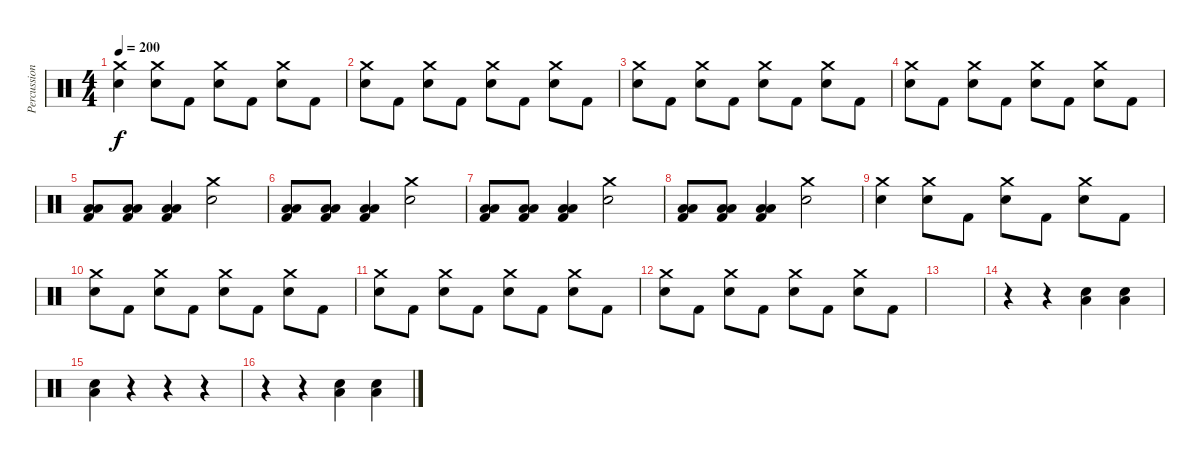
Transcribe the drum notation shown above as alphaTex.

\track ("Percussion" "Percussion") {instrument percussion}
\staff {score}
\articulation defaults
\ts (4 4)
\tempo 200
\clef neutral
\ks c
("Crash medium (hit)" "Snare (hit) 2").4{dy f} ("Crash medium (hit)" "Snare (hit) 2").8 "Kick (hit) 2".8 ("Crash medium (hit)" "Snare (hit) 2").8 "Kick (hit) 2".8 ("Crash medium (hit)" "Snare (hit) 2").8 "Kick (hit) 2".8 |
("Crash medium (hit)" "Snare (hit) 2").8 "Kick (hit) 2".8 ("Crash medium (hit)" "Snare (hit) 2").8 "Kick (hit) 2".8 ("Crash medium (hit)" "Snare (hit) 2").8 "Kick (hit) 2".8 ("Crash medium (hit)" "Snare (hit) 2").8 "Kick (hit) 2".8 |
("Crash medium (hit)" "Snare (hit) 2").8 "Kick (hit) 2".8 ("Crash medium (hit)" "Snare (hit) 2").8 "Kick (hit) 2".8 ("Crash medium (hit)" "Snare (hit) 2").8 "Kick (hit) 2".8 ("Crash medium (hit)" "Snare (hit) 2").8 "Kick (hit) 2".8 |
("Crash medium (hit)" "Snare (hit) 2").8 "Kick (hit) 2".8 ("Crash medium (hit)" "Snare (hit) 2").8 "Kick (hit) 2".8 ("Crash medium (hit)" "Snare (hit) 2").8 "Kick (hit) 2".8 ("Crash medium (hit)" "Snare (hit) 2").8 "Kick (hit) 2".8 |
("Low Floor Tom (hit)" "Low Tom (hit)" "Kick (hit) 2").8 ("Low Floor Tom (hit)" "Low Tom (hit)" "Kick (hit) 2").8 ("Low Floor Tom (hit)" "Low Tom (hit)" "Kick (hit) 2").4 ("Crash medium (hit)" "Snare (hit) 2").2 |
("Low Floor Tom (hit)" "Low Tom (hit)" "Kick (hit) 2").8 ("Low Floor Tom (hit)" "Low Tom (hit)" "Kick (hit) 2").8 ("Low Floor Tom (hit)" "Low Tom (hit)" "Kick (hit) 2").4 ("Crash medium (hit)" "Snare (hit) 2").2 |
("Low Floor Tom (hit)" "Low Tom (hit)" "Kick (hit) 2").8 ("Low Floor Tom (hit)" "Low Tom (hit)" "Kick (hit) 2").8 ("Low Floor Tom (hit)" "Low Tom (hit)" "Kick (hit) 2").4 ("Crash medium (hit)" "Snare (hit) 2").2 |
("Low Floor Tom (hit)" "Low Tom (hit)" "Kick (hit) 2").8 ("Low Floor Tom (hit)" "Low Tom (hit)" "Kick (hit) 2").8 ("Low Floor Tom (hit)" "Low Tom (hit)" "Kick (hit) 2").4 ("Crash medium (hit)" "Snare (hit) 2").2 |
("Crash medium (hit)" "Snare (hit) 2").4 ("Crash medium (hit)" "Snare (hit) 2").8 "Kick (hit) 2".8 ("Crash medium (hit)" "Snare (hit) 2").8 "Kick (hit) 2".8 ("Crash medium (hit)" "Snare (hit) 2").8 "Kick (hit) 2".8 |
("Crash medium (hit)" "Snare (hit) 2").8 "Kick (hit) 2".8 ("Crash medium (hit)" "Snare (hit) 2").8 "Kick (hit) 2".8 ("Crash medium (hit)" "Snare (hit) 2").8 "Kick (hit) 2".8 ("Crash medium (hit)" "Snare (hit) 2").8 "Kick (hit) 2".8 |
("Crash medium (hit)" "Snare (hit) 2").8 "Kick (hit) 2".8 ("Crash medium (hit)" "Snare (hit) 2").8 "Kick (hit) 2".8 ("Crash medium (hit)" "Snare (hit) 2").8 "Kick (hit) 2".8 ("Crash medium (hit)" "Snare (hit) 2").8 "Kick (hit) 2".8 |
("Crash medium (hit)" "Snare (hit) 2").8 "Kick (hit) 2".8 ("Crash medium (hit)" "Snare (hit) 2").8 "Kick (hit) 2".8 ("Crash medium (hit)" "Snare (hit) 2").8 "Kick (hit) 2".8 ("Crash medium (hit)" "Snare (hit) 2").8 "Kick (hit) 2".8 |
|
r.4 r.4 ("Snare (hit) 2" "Low Floor Tom (hit)").4 ("Snare (hit) 2" "Low Floor Tom (hit)").4 |
("Snare (hit) 2" "Low Floor Tom (hit)").4 r.4 r.4 r.4 |
r.4 r.4 ("Snare (hit) 2" "Low Floor Tom (hit)").4 ("Snare (hit) 2" "Low Floor Tom (hit)").4
